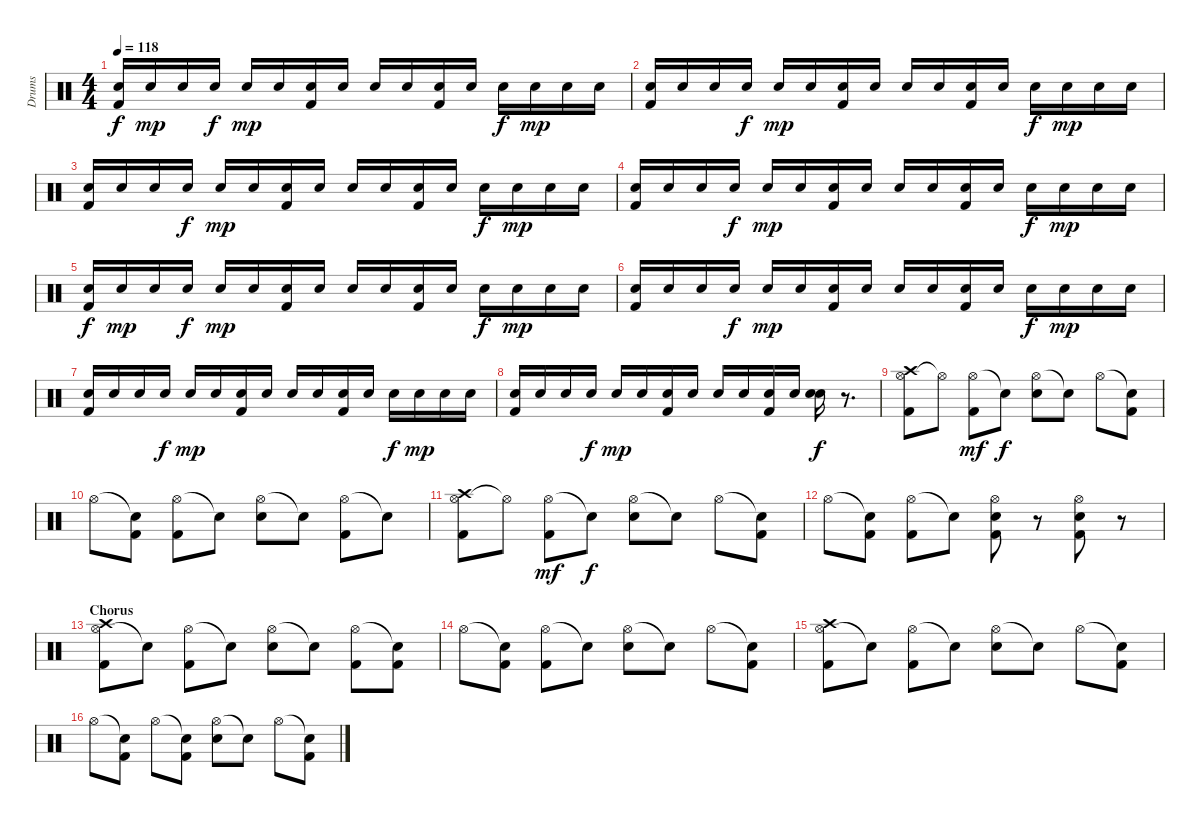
\track ("Drums" "Drums") {instrument percussion}
\staff {score}
\articulation defaults
\ts (4 4)
\tempo 118
\clef neutral
\ks c
("Kick (hit) 2" "Snare (hit) 2").16{dy f} "Snare (hit) 2".16{dy mp} "Snare (hit) 2".16 "Electric Snare (hit)".16{dy f} "Snare (hit) 2".16{dy mp} "Snare (hit) 2".16 ("Kick (hit) 2" "Snare (hit) 2").16 "Snare (hit) 2".16 "Snare (hit) 2".16 "Snare (hit) 2".16 ("Kick (hit) 2" "Snare (hit) 2").16 "Snare (hit) 2".16 "Electric Snare (hit)".16{dy f} "Snare (hit) 2".16{dy mp} "Snare (hit) 2".16 "Snare (hit) 2".16 |
("Kick (hit) 2" "Snare (hit) 2").16 "Snare (hit) 2".16 "Snare (hit) 2".16 "Electric Snare (hit)".16{dy f} "Snare (hit) 2".16{dy mp} "Snare (hit) 2".16 ("Kick (hit) 2" "Snare (hit) 2").16 "Snare (hit) 2".16 "Snare (hit) 2".16 "Snare (hit) 2".16 ("Kick (hit) 2" "Snare (hit) 2").16 "Snare (hit) 2".16 "Electric Snare (hit)".16{dy f} "Snare (hit) 2".16{dy mp} "Snare (hit) 2".16 "Snare (hit) 2".16 |
("Kick (hit) 2" "Snare (hit) 2").16 "Snare (hit) 2".16 "Snare (hit) 2".16 "Electric Snare (hit)".16{dy f} "Snare (hit) 2".16{dy mp} "Snare (hit) 2".16 ("Kick (hit) 2" "Snare (hit) 2").16 "Snare (hit) 2".16 "Snare (hit) 2".16 "Snare (hit) 2".16 ("Kick (hit) 2" "Snare (hit) 2").16 "Snare (hit) 2".16 "Electric Snare (hit)".16{dy f} "Snare (hit) 2".16{dy mp} "Snare (hit) 2".16 "Snare (hit) 2".16 |
("Kick (hit) 2" "Snare (hit) 2").16 "Snare (hit) 2".16 "Snare (hit) 2".16 "Electric Snare (hit)".16{dy f} "Snare (hit) 2".16{dy mp} "Snare (hit) 2".16 ("Kick (hit) 2" "Snare (hit) 2").16 "Snare (hit) 2".16 "Snare (hit) 2".16 "Snare (hit) 2".16 ("Kick (hit) 2" "Snare (hit) 2").16 "Snare (hit) 2".16 "Electric Snare (hit)".16{dy f} "Snare (hit) 2".16{dy mp} "Snare (hit) 2".16 "Snare (hit) 2".16 |
("Kick (hit) 2" "Snare (hit) 2").16{dy f} "Snare (hit) 2".16{dy mp} "Snare (hit) 2".16 "Electric Snare (hit)".16{dy f} "Snare (hit) 2".16{dy mp} "Snare (hit) 2".16 ("Kick (hit) 2" "Snare (hit) 2").16 "Snare (hit) 2".16 "Snare (hit) 2".16 "Snare (hit) 2".16 ("Kick (hit) 2" "Snare (hit) 2").16 "Snare (hit) 2".16 "Electric Snare (hit)".16{dy f} "Snare (hit) 2".16{dy mp} "Snare (hit) 2".16 "Snare (hit) 2".16 |
("Kick (hit) 2" "Snare (hit) 2").16 "Snare (hit) 2".16 "Snare (hit) 2".16 "Electric Snare (hit)".16{dy f} "Snare (hit) 2".16{dy mp} "Snare (hit) 2".16 ("Kick (hit) 2" "Snare (hit) 2").16 "Snare (hit) 2".16 "Snare (hit) 2".16 "Snare (hit) 2".16 ("Kick (hit) 2" "Snare (hit) 2").16 "Snare (hit) 2".16 "Electric Snare (hit)".16{dy f} "Snare (hit) 2".16{dy mp} "Snare (hit) 2".16 "Snare (hit) 2".16 |
("Kick (hit) 2" "Snare (hit) 2").16 "Snare (hit) 2".16 "Snare (hit) 2".16 "Electric Snare (hit)".16{dy f} "Snare (hit) 2".16{dy mp} "Snare (hit) 2".16 ("Kick (hit) 2" "Snare (hit) 2").16 "Snare (hit) 2".16 "Snare (hit) 2".16 "Snare (hit) 2".16 ("Kick (hit) 2" "Snare (hit) 2").16 "Snare (hit) 2".16 "Electric Snare (hit)".16{dy f} "Snare (hit) 2".16{dy mp} "Snare (hit) 2".16 "Snare (hit) 2".16 |
("Kick (hit) 2" "Snare (hit) 2").16 "Snare (hit) 2".16 "Snare (hit) 2".16 "Electric Snare (hit)".16{dy f} "Snare (hit) 2".16{dy mp} "Snare (hit) 2".16 ("Kick (hit) 2" "Snare (hit) 2").16 "Snare (hit) 2".16 "Snare (hit) 2".16 "Snare (hit) 2".16 ("Kick (hit) 2" "Snare (hit) 2").16 "Snare (hit) 2".16 ("Electric Snare (hit)" "Electric Snare (hit)").16{dy f} r.8{d} |
("Hi-Hat (open)" "Kick (hit) 2" "Crash high (hit)").8 "Hi-Hat (open)"{t}.8 ("Hi-Hat (open)" "Kick (hit) 2").8{dy mf} "Snare (hit)"{t}.8{dy f} ("Hi-Hat (open)" "Electric Snare (hit)").8 "Snare (hit)"{t}.8 "Hi-Hat (open)".8 ("Snare (hit)"{t} "Kick (hit) 2").8 |
"Hi-Hat (open)".8 ("Snare (hit)"{t} "Kick (hit) 2").8 ("Hi-Hat (open)" "Kick (hit) 2").8 "Snare (hit)"{t}.8 ("Hi-Hat (open)" "Electric Snare (hit)").8 "Snare (hit)"{t}.8 ("Hi-Hat (open)" "Kick (hit) 2").8 "Snare (hit)"{t}.8 |
("Hi-Hat (open)" "Kick (hit) 2" "Crash high (hit)").8 "Hi-Hat (open)"{t}.8 ("Hi-Hat (open)" "Kick (hit) 2").8{dy mf} "Snare (hit)"{t}.8{dy f} ("Hi-Hat (open)" "Electric Snare (hit)").8 "Snare (hit)"{t}.8 "Hi-Hat (open)".8 ("Snare (hit)"{t} "Kick (hit) 2").8 |
"Hi-Hat (open)".8 ("Snare (hit)"{t} "Kick (hit) 2").8 ("Hi-Hat (open)" "Kick (hit) 2").8 "Snare (hit)"{t}.8 ("Hi-Hat (open)" "Kick (hit) 2" "Electric Snare (hit)").8 r.8 ("Hi-Hat (open)" "Kick (hit) 2" "Electric Snare (hit)").8 r.8 |
\section ("" "Chorus")
("Hi-Hat (open)" "Kick (hit) 2" "Crash high (hit)").8 "Snare (hit)"{t}.8 ("Hi-Hat (open)" "Kick (hit) 2").8 "Snare (hit)"{t}.8 ("Hi-Hat (open)" "Electric Snare (hit)").8 "Snare (hit)"{t}.8 ("Hi-Hat (open)" "Kick (hit) 2").8 ("Snare (hit)"{t} "Kick (hit) 2").8 |
"Hi-Hat (open)".8 ("Snare (hit)"{t} "Kick (hit) 2").8 ("Hi-Hat (open)" "Kick (hit) 2").8 "Snare (hit)"{t}.8 ("Hi-Hat (open)" "Electric Snare (hit)").8 "Snare (hit)"{t}.8 "Hi-Hat (open)".8 ("Snare (hit)"{t} "Kick (hit) 2").8 |
("Hi-Hat (open)" "Kick (hit) 2" "Crash high (hit)").8 "Snare (hit)"{t}.8 ("Hi-Hat (open)" "Kick (hit) 2").8 "Snare (hit)"{t}.8 ("Hi-Hat (open)" "Electric Snare (hit)").8 "Snare (hit)"{t}.8 "Hi-Hat (open)".8 ("Snare (hit)"{t} "Kick (hit) 2").8 |
"Hi-Hat (open)".8 ("Snare (hit)"{t} "Kick (hit) 2").8 "Hi-Hat (open)".8 ("Snare (hit)"{t} "Kick (hit) 2").8 ("Hi-Hat (open)" "Electric Snare (hit)").8 "Snare (hit)"{t}.8 "Hi-Hat (open)".8 ("Snare (hit)"{t} "Kick (hit) 2").8
